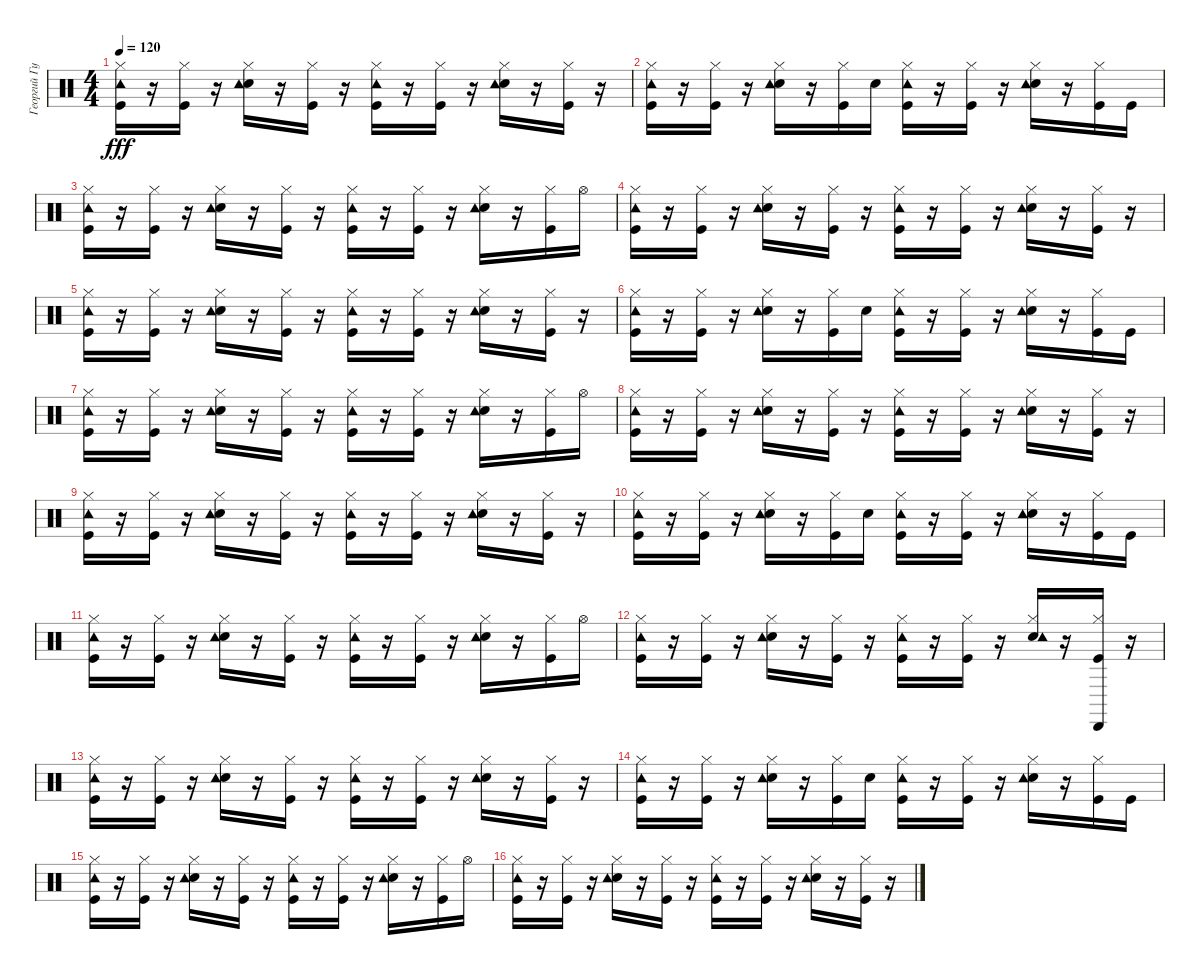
\track ("Георгий Гурьянов (ударные)" "Георгий Гу") {instrument percussion}
\staff {score}
\articulation defaults
\ts (4 4)
\tempo 120
\clef neutral
\ks c
("Kick (hit)" "Hi-Hat (closed)" "Tambourine (hit)").16{dy fff} r.16 ("Kick (hit)" "Hi-Hat (closed)").16 r.16 ("Snare (hit) 2" "Hi-Hat (closed)" "Tambourine (hit)").16 r.16 ("Kick (hit)" "Hi-Hat (closed)").16 r.16 ("Kick (hit)" "Hi-Hat (closed)" "Tambourine (hit)").16 r.16 ("Kick (hit)" "Hi-Hat (closed)").16 r.16 ("Snare (hit) 2" "Hi-Hat (closed)" "Tambourine (hit)").16 r.16 ("Kick (hit)" "Hi-Hat (closed)").16 r.16 |
("Kick (hit)" "Hi-Hat (closed)" "Tambourine (hit)").16 r.16 ("Kick (hit)" "Hi-Hat (closed)").16 r.16 ("Snare (hit) 2" "Hi-Hat (closed)" "Tambourine (hit)").16 r.16 ("Kick (hit)" "Hi-Hat (closed)").16 "Snare (hit) 2".16 ("Kick (hit)" "Hi-Hat (closed)" "Tambourine (hit)").16 r.16 ("Kick (hit)" "Hi-Hat (closed)").16 r.16 ("Snare (hit) 2" "Hi-Hat (closed)" "Tambourine (hit)").16 r.16 ("Kick (hit)" "Hi-Hat (closed)").16 "Kick (hit)".16 |
("Kick (hit)" "Hi-Hat (closed)" "Tambourine (hit)").16 r.16 ("Kick (hit)" "Hi-Hat (closed)").16 r.16 ("Snare (hit) 2" "Hi-Hat (closed)" "Tambourine (hit)").16 r.16 ("Kick (hit)" "Hi-Hat (closed)").16 r.16 ("Kick (hit)" "Hi-Hat (closed)" "Tambourine (hit)").16 r.16 ("Kick (hit)" "Hi-Hat (closed)").16 r.16 ("Snare (hit) 2" "Hi-Hat (closed)" "Tambourine (hit)").16 r.16 ("Kick (hit)" "Hi-Hat (closed)").16 "Hi-Hat (open)".16 |
("Kick (hit)" "Hi-Hat (closed)" "Tambourine (hit)").16 r.16 ("Kick (hit)" "Hi-Hat (closed)").16 r.16 ("Snare (hit) 2" "Hi-Hat (closed)" "Tambourine (hit)").16 r.16 ("Kick (hit)" "Hi-Hat (closed)").16 r.16 ("Kick (hit)" "Hi-Hat (closed)" "Tambourine (hit)").16 r.16 ("Kick (hit)" "Hi-Hat (closed)").16 r.16 ("Snare (hit) 2" "Hi-Hat (closed)" "Tambourine (hit)").16 r.16 ("Kick (hit)" "Hi-Hat (closed)").16 r.16 |
("Kick (hit)" "Hi-Hat (closed)" "Tambourine (hit)").16 r.16 ("Kick (hit)" "Hi-Hat (closed)").16 r.16 ("Snare (hit) 2" "Hi-Hat (closed)" "Tambourine (hit)").16 r.16 ("Kick (hit)" "Hi-Hat (closed)").16 r.16 ("Kick (hit)" "Hi-Hat (closed)" "Tambourine (hit)").16 r.16 ("Kick (hit)" "Hi-Hat (closed)").16 r.16 ("Snare (hit) 2" "Hi-Hat (closed)" "Tambourine (hit)").16 r.16 ("Kick (hit)" "Hi-Hat (closed)").16 r.16 |
("Kick (hit)" "Hi-Hat (closed)" "Tambourine (hit)").16 r.16 ("Kick (hit)" "Hi-Hat (closed)").16 r.16 ("Snare (hit) 2" "Hi-Hat (closed)" "Tambourine (hit)").16 r.16 ("Kick (hit)" "Hi-Hat (closed)").16 "Snare (hit) 2".16 ("Kick (hit)" "Hi-Hat (closed)" "Tambourine (hit)").16 r.16 ("Kick (hit)" "Hi-Hat (closed)").16 r.16 ("Snare (hit) 2" "Hi-Hat (closed)" "Tambourine (hit)").16 r.16 ("Kick (hit)" "Hi-Hat (closed)").16 "Kick (hit)".16 |
("Kick (hit)" "Hi-Hat (closed)" "Tambourine (hit)").16 r.16 ("Kick (hit)" "Hi-Hat (closed)").16 r.16 ("Snare (hit) 2" "Hi-Hat (closed)" "Tambourine (hit)").16 r.16 ("Kick (hit)" "Hi-Hat (closed)").16 r.16 ("Kick (hit)" "Hi-Hat (closed)" "Tambourine (hit)").16 r.16 ("Kick (hit)" "Hi-Hat (closed)").16 r.16 ("Snare (hit) 2" "Hi-Hat (closed)" "Tambourine (hit)").16 r.16 ("Kick (hit)" "Hi-Hat (closed)").16 "Hi-Hat (open)".16 |
("Kick (hit)" "Hi-Hat (closed)" "Tambourine (hit)").16 r.16 ("Kick (hit)" "Hi-Hat (closed)").16 r.16 ("Snare (hit) 2" "Hi-Hat (closed)" "Tambourine (hit)").16 r.16 ("Kick (hit)" "Hi-Hat (closed)").16 r.16 ("Kick (hit)" "Hi-Hat (closed)" "Tambourine (hit)").16 r.16 ("Kick (hit)" "Hi-Hat (closed)").16 r.16 ("Snare (hit) 2" "Hi-Hat (closed)" "Tambourine (hit)").16 r.16 ("Kick (hit)" "Hi-Hat (closed)").16 r.16 |
("Kick (hit)" "Hi-Hat (closed)" "Tambourine (hit)").16 r.16 ("Kick (hit)" "Hi-Hat (closed)").16 r.16 ("Snare (hit) 2" "Hi-Hat (closed)" "Tambourine (hit)").16 r.16 ("Kick (hit)" "Hi-Hat (closed)").16 r.16 ("Kick (hit)" "Hi-Hat (closed)" "Tambourine (hit)").16 r.16 ("Kick (hit)" "Hi-Hat (closed)").16 r.16 ("Snare (hit) 2" "Hi-Hat (closed)" "Tambourine (hit)").16 r.16 ("Kick (hit)" "Hi-Hat (closed)").16 r.16 |
("Kick (hit)" "Hi-Hat (closed)" "Tambourine (hit)").16 r.16 ("Kick (hit)" "Hi-Hat (closed)").16 r.16 ("Snare (hit) 2" "Hi-Hat (closed)" "Tambourine (hit)").16 r.16 ("Kick (hit)" "Hi-Hat (closed)").16 "Snare (hit) 2".16 ("Kick (hit)" "Hi-Hat (closed)" "Tambourine (hit)").16 r.16 ("Kick (hit)" "Hi-Hat (closed)").16 r.16 ("Snare (hit) 2" "Hi-Hat (closed)" "Tambourine (hit)").16 r.16 ("Kick (hit)" "Hi-Hat (closed)").16 "Kick (hit)".16 |
("Kick (hit)" "Hi-Hat (closed)" "Tambourine (hit)").16 r.16 ("Kick (hit)" "Hi-Hat (closed)").16 r.16 ("Snare (hit) 2" "Hi-Hat (closed)" "Tambourine (hit)").16 r.16 ("Kick (hit)" "Hi-Hat (closed)").16 r.16 ("Kick (hit)" "Hi-Hat (closed)" "Tambourine (hit)").16 r.16 ("Kick (hit)" "Hi-Hat (closed)").16 r.16 ("Snare (hit) 2" "Hi-Hat (closed)" "Tambourine (hit)").16 r.16 ("Kick (hit)" "Hi-Hat (closed)").16 "Hi-Hat (open)".16 |
("Kick (hit)" "Hi-Hat (closed)" "Tambourine (hit)").16 r.16 ("Kick (hit)" "Hi-Hat (closed)").16 r.16 ("Snare (hit) 2" "Hi-Hat (closed)" "Tambourine (hit)").16 r.16 ("Kick (hit)" "Hi-Hat (closed)").16 r.16 ("Kick (hit)" "Hi-Hat (closed)" "Tambourine (hit)").16 r.16 ("Kick (hit)" "Hi-Hat (closed)").16 r.16 ("Snare (hit) 2" "Hi-Hat (closed)" "Tambourine (hit)").16 r.16 ("Kick (hit)" "Hi-Hat (closed)" "Cabasa (hit)").16 r.16 |
("Kick (hit)" "Hi-Hat (closed)" "Tambourine (hit)").16 r.16 ("Kick (hit)" "Hi-Hat (closed)").16 r.16 ("Snare (hit) 2" "Hi-Hat (closed)" "Tambourine (hit)").16 r.16 ("Kick (hit)" "Hi-Hat (closed)").16 r.16 ("Kick (hit)" "Hi-Hat (closed)" "Tambourine (hit)").16 r.16 ("Kick (hit)" "Hi-Hat (closed)").16 r.16 ("Snare (hit) 2" "Hi-Hat (closed)" "Tambourine (hit)").16 r.16 ("Kick (hit)" "Hi-Hat (closed)").16 r.16 |
("Kick (hit)" "Hi-Hat (closed)" "Tambourine (hit)").16 r.16 ("Kick (hit)" "Hi-Hat (closed)").16 r.16 ("Snare (hit) 2" "Hi-Hat (closed)" "Tambourine (hit)").16 r.16 ("Kick (hit)" "Hi-Hat (closed)").16 "Snare (hit) 2".16 ("Kick (hit)" "Hi-Hat (closed)" "Tambourine (hit)").16 r.16 ("Kick (hit)" "Hi-Hat (closed)").16 r.16 ("Snare (hit) 2" "Hi-Hat (closed)" "Tambourine (hit)").16 r.16 ("Kick (hit)" "Hi-Hat (closed)").16 "Kick (hit)".16 |
("Kick (hit)" "Hi-Hat (closed)" "Tambourine (hit)").16 r.16 ("Kick (hit)" "Hi-Hat (closed)").16 r.16 ("Snare (hit) 2" "Hi-Hat (closed)" "Tambourine (hit)").16 r.16 ("Kick (hit)" "Hi-Hat (closed)").16 r.16 ("Kick (hit)" "Hi-Hat (closed)" "Tambourine (hit)").16 r.16 ("Kick (hit)" "Hi-Hat (closed)").16 r.16 ("Snare (hit) 2" "Hi-Hat (closed)" "Tambourine (hit)").16 r.16 ("Kick (hit)" "Hi-Hat (closed)").16 "Hi-Hat (open)".16 |
("Kick (hit)" "Hi-Hat (closed)" "Tambourine (hit)").16 r.16 ("Kick (hit)" "Hi-Hat (closed)").16 r.16 ("Snare (hit) 2" "Hi-Hat (closed)" "Tambourine (hit)").16 r.16 ("Kick (hit)" "Hi-Hat (closed)").16 r.16 ("Kick (hit)" "Hi-Hat (closed)" "Tambourine (hit)").16 r.16 ("Kick (hit)" "Hi-Hat (closed)").16 r.16 ("Snare (hit) 2" "Hi-Hat (closed)" "Tambourine (hit)").16 r.16 ("Kick (hit)" "Hi-Hat (closed)").16 r.16
